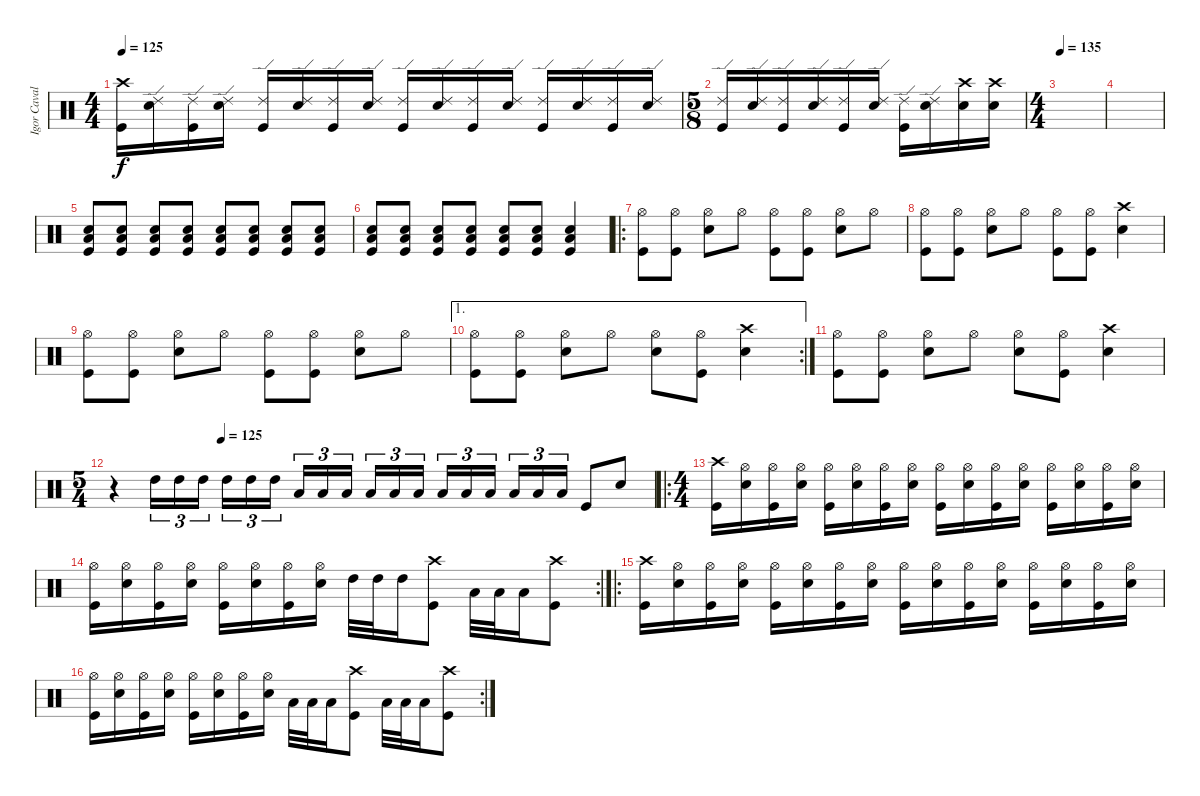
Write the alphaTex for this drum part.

\track ("Igor Cavalera" "Igor Caval") {instrument percussion}
\staff {score}
\articulation defaults
\ts (4 4)
\tempo 125
\clef neutral
\ks c
("Crash high (hit)" "Kick (hit)").16{dy f} ("Ride (edge) 2" "Snare (hit) 2").16 ("Ride (edge) 2" "Kick (hit)").16 ("Ride (edge) 2" "Snare (hit) 2").16 ("Ride (edge) 2" "Kick (hit)").16 ("Ride (edge) 2" "Snare (hit) 2").16 ("Ride (edge) 2" "Kick (hit)").16 ("Ride (edge) 2" "Snare (hit) 2").16 ("Ride (edge) 2" "Kick (hit)").16 ("Ride (edge) 2" "Snare (hit) 2").16 ("Ride (edge) 2" "Kick (hit)").16 ("Ride (edge) 2" "Snare (hit) 2").16 ("Ride (edge) 2" "Kick (hit)").16 ("Ride (edge) 2" "Snare (hit) 2").16 ("Ride (edge) 2" "Kick (hit)").16 ("Ride (edge) 2" "Snare (hit) 2").16 |
\ts (5 8)
("Ride (edge) 2" "Kick (hit)").16 ("Ride (edge) 2" "Snare (hit) 2").16 ("Ride (edge) 2" "Kick (hit)").16 ("Ride (edge) 2" "Snare (hit) 2").16 ("Ride (edge) 2" "Kick (hit)").16 ("Ride (edge) 2" "Snare (hit) 2").16 ("Ride (edge) 2" "Kick (hit)").16 ("Ride (edge) 2" "Snare (hit) 2").16 ("Crash high (hit)" "Snare (hit) 2").16 ("Crash high (hit)" "Snare (hit) 2").16 |
\ts (4 4)
\tempo 135
|
|
("Low Tom (hit)" "Snare (hit) 2" "Kick (hit)").8 ("Low Tom (hit)" "Snare (hit) 2" "Kick (hit)").8 ("Low Tom (hit)" "Snare (hit) 2" "Kick (hit)").8 ("Low Tom (hit)" "Snare (hit) 2" "Kick (hit)").8 ("Low Tom (hit)" "Snare (hit) 2" "Kick (hit)").8 ("Low Tom (hit)" "Snare (hit) 2" "Kick (hit)").8 ("Low Tom (hit)" "Snare (hit) 2" "Kick (hit)").8 ("Low Tom (hit)" "Snare (hit) 2" "Kick (hit)").8 |
("Low Tom (hit)" "Snare (hit) 2" "Kick (hit)").8 ("Low Tom (hit)" "Snare (hit) 2" "Kick (hit)").8 ("Low Tom (hit)" "Snare (hit) 2" "Kick (hit)").8 ("Low Tom (hit)" "Snare (hit) 2" "Kick (hit)").8 ("Low Tom (hit)" "Snare (hit) 2" "Kick (hit)").8 ("Low Tom (hit)" "Snare (hit) 2" "Kick (hit)").8 ("Low Tom (hit)" "Snare (hit) 2" "Kick (hit)").4 |
\ro
("Hi-Hat (open)" "Kick (hit)").8 ("Hi-Hat (open)" "Kick (hit)").8 ("Hi-Hat (open)" "Snare (hit) 2").8 "Hi-Hat (open)".8 ("Hi-Hat (open)" "Kick (hit)").8 ("Hi-Hat (open)" "Kick (hit)").8 ("Hi-Hat (open)" "Snare (hit) 2").8 "Hi-Hat (open)".8 |
("Hi-Hat (open)" "Kick (hit)").8 ("Hi-Hat (open)" "Kick (hit)").8 ("Hi-Hat (open)" "Snare (hit) 2").8 "Hi-Hat (open)".8 ("Hi-Hat (open)" "Kick (hit)").8 ("Hi-Hat (open)" "Kick (hit)").8 ("Crash high (hit)" "Snare (hit) 2").4 |
("Hi-Hat (open)" "Kick (hit)").8 ("Hi-Hat (open)" "Kick (hit)").8 ("Hi-Hat (open)" "Snare (hit) 2").8 "Hi-Hat (open)".8 ("Hi-Hat (open)" "Kick (hit)").8 ("Hi-Hat (open)" "Kick (hit)").8 ("Hi-Hat (open)" "Snare (hit) 2").8 "Hi-Hat (open)".8 |
\ae 1
\rc 2
("Hi-Hat (open)" "Kick (hit)").8 ("Hi-Hat (open)" "Kick (hit)").8 ("Hi-Hat (open)" "Snare (hit) 2").8 "Hi-Hat (open)".8 ("Hi-Hat (open)" "Snare (hit) 2").8 ("Hi-Hat (open)" "Kick (hit)").8 ("Crash high (hit)" "Snare (hit) 2").4 |
("Hi-Hat (open)" "Kick (hit)").8 ("Hi-Hat (open)" "Kick (hit)").8 ("Hi-Hat (open)" "Snare (hit) 2").8 "Hi-Hat (open)".8 ("Hi-Hat (open)" "Snare (hit) 2").8 ("Hi-Hat (open)" "Kick (hit)").8 ("Crash high (hit)" "Snare (hit) 2").4 |
\ts (5 4)
\tempo (125 0.2)
r.4 "High Tom (hit)".16{tu (3 2)} "High Tom (hit)".16{tu (3 2)} "High Tom (hit)".16{tu (3 2) beam splitsecondary} "High Tom (hit)".16{tu (3 2)} "High Tom (hit)".16{tu (3 2)} "High Tom (hit)".16{tu (3 2)} "Low Tom (hit)".16{tu (3 2)} "Low Tom (hit)".16{tu (3 2)} "Low Tom (hit)".16{tu (3 2) beam splitsecondary} "Low Tom (hit)".16{tu (3 2)} "Low Tom (hit)".16{tu (3 2)} "Low Tom (hit)".16{tu (3 2)} "Low Floor Tom (hit)".16{tu (3 2)} "Low Floor Tom (hit)".16{tu (3 2)} "Low Floor Tom (hit)".16{tu (3 2) beam splitsecondary} "Low Floor Tom (hit)".16{tu (3 2)} "Low Floor Tom (hit)".16{tu (3 2)} "Low Floor Tom (hit)".16{tu (3 2)} "Kick (hit)".8 "Snare (hit) 2".8 |
\ro
\ts (4 4)
("Crash high (hit)" "Kick (hit)").16 ("Hi-Hat (open)" "Snare (hit) 2").16 ("Hi-Hat (open)" "Kick (hit)").16 ("Hi-Hat (open)" "Snare (hit) 2").16 ("Hi-Hat (open)" "Kick (hit)").16 ("Hi-Hat (open)" "Snare (hit) 2").16 ("Hi-Hat (open)" "Kick (hit)").16 ("Hi-Hat (open)" "Snare (hit) 2").16 ("Hi-Hat (open)" "Kick (hit)").16 ("Hi-Hat (open)" "Snare (hit) 2").16 ("Hi-Hat (open)" "Kick (hit)").16 ("Hi-Hat (open)" "Snare (hit) 2").16 ("Hi-Hat (open)" "Kick (hit)").16 ("Hi-Hat (open)" "Snare (hit) 2").16 ("Hi-Hat (open)" "Kick (hit)").16 ("Hi-Hat (open)" "Snare (hit) 2").16 |
\rc 2
("Hi-Hat (open)" "Kick (hit)").16 ("Hi-Hat (open)" "Snare (hit) 2").16 ("Hi-Hat (open)" "Kick (hit)").16 ("Hi-Hat (open)" "Snare (hit) 2").16 ("Hi-Hat (open)" "Kick (hit)").16 ("Hi-Hat (open)" "Snare (hit) 2").16 ("Hi-Hat (open)" "Kick (hit)").16 ("Hi-Hat (open)" "Snare (hit) 2").16 "High Tom (hit)".32 "High Tom (hit)".32 "High Tom (hit)".16 ("Crash high (hit)" "Kick (hit)").8 "Low Tom (hit)".32 "Low Tom (hit)".32 "Low Tom (hit)".16 ("Crash high (hit)" "Kick (hit)").8 |
\ro
("Crash high (hit)" "Kick (hit)").16 ("Hi-Hat (open)" "Snare (hit) 2").16 ("Hi-Hat (open)" "Kick (hit)").16 ("Hi-Hat (open)" "Snare (hit) 2").16 ("Hi-Hat (open)" "Kick (hit)").16 ("Hi-Hat (open)" "Snare (hit) 2").16 ("Hi-Hat (open)" "Kick (hit)").16 ("Hi-Hat (open)" "Snare (hit) 2").16 ("Hi-Hat (open)" "Kick (hit)").16 ("Hi-Hat (open)" "Snare (hit) 2").16 ("Hi-Hat (open)" "Kick (hit)").16 ("Hi-Hat (open)" "Snare (hit) 2").16 ("Hi-Hat (open)" "Kick (hit)").16 ("Hi-Hat (open)" "Snare (hit) 2").16 ("Hi-Hat (open)" "Kick (hit)").16 ("Hi-Hat (open)" "Snare (hit) 2").16 |
\rc 2
("Hi-Hat (open)" "Kick (hit)").16 ("Hi-Hat (open)" "Snare (hit) 2").16 ("Hi-Hat (open)" "Kick (hit)").16 ("Hi-Hat (open)" "Snare (hit) 2").16 ("Hi-Hat (open)" "Kick (hit)").16 ("Hi-Hat (open)" "Snare (hit) 2").16 ("Hi-Hat (open)" "Kick (hit)").16 ("Hi-Hat (open)" "Snare (hit) 2").16 "Low Tom (hit)".32 "Low Tom (hit)".32 "Low Tom (hit)".16 ("Crash high (hit)" "Kick (hit)").8 "Low Floor Tom (hit)".32 "Low Floor Tom (hit)".32 "Low Floor Tom (hit)".16 ("Crash high (hit)" "Kick (hit)").8
